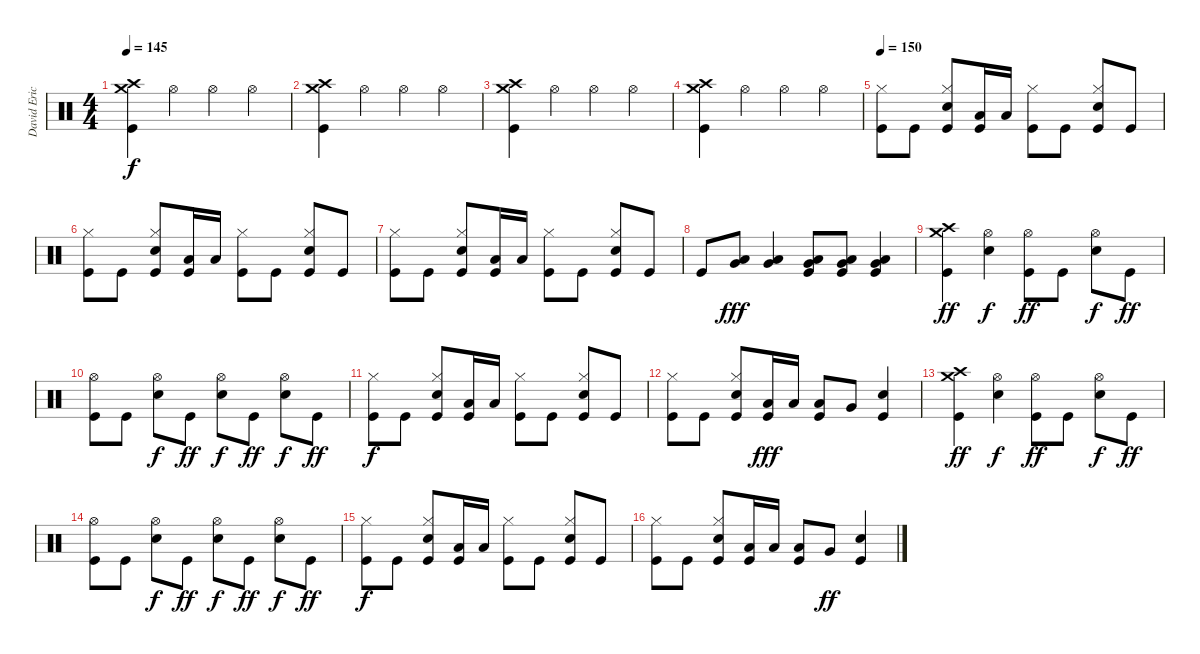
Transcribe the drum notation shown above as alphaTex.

\track ("David Eric Grohl" "David Eric") {instrument percussion}
\staff {score}
\articulation defaults
\ts (4 4)
\tempo 145
\clef neutral
\ks c
("Crash medium (hit)" "Crash high (hit)" "Kick (hit)").4{dy f} "Hi-Hat (open)".4 "Hi-Hat (open)".4 "Hi-Hat (open)".4 |
("Crash medium (hit)" "Crash high (hit)" "Kick (hit)").4 "Hi-Hat (open)".4 "Hi-Hat (open)".4 "Hi-Hat (open)".4 |
("Crash medium (hit)" "Crash high (hit)" "Kick (hit)").4 "Hi-Hat (open)".4 "Hi-Hat (open)".4 "Hi-Hat (open)".4 |
("Crash medium (hit)" "Crash high (hit)" "Kick (hit)").4 "Hi-Hat (open)".4 "Hi-Hat (open)".4 "Hi-Hat (open)".4 |
\tempo 150
("Hi-Hat (closed)" "Kick (hit)").8 "Kick (hit)".8 ("Snare (hit) 2" "Hi-Hat (closed)" "Kick (hit)").8 ("Low Tom (hit)" "Kick (hit)").16 "Low Tom (hit)".16 ("Hi-Hat (closed)" "Kick (hit)").8 "Kick (hit)".8 ("Snare (hit) 2" "Hi-Hat (closed)" "Kick (hit)").8 "Kick (hit)".8 |
("Hi-Hat (closed)" "Kick (hit)").8 "Kick (hit)".8 ("Snare (hit) 2" "Hi-Hat (closed)" "Kick (hit)").8 ("Low Tom (hit)" "Kick (hit)").16 "Low Tom (hit)".16 ("Hi-Hat (closed)" "Kick (hit)").8 "Kick (hit)".8 ("Snare (hit) 2" "Hi-Hat (closed)" "Kick (hit)").8 "Kick (hit)".8 |
("Hi-Hat (closed)" "Kick (hit)").8 "Kick (hit)".8 ("Snare (hit) 2" "Hi-Hat (closed)" "Kick (hit)").8 ("Low Tom (hit)" "Kick (hit)").16 "Low Tom (hit)".16 ("Hi-Hat (closed)" "Kick (hit)").8 "Kick (hit)".8 ("Snare (hit) 2" "Hi-Hat (closed)" "Kick (hit)").8 "Kick (hit)".8 |
"Kick (hit)".8 ("Low Tom (hit)" "Very Low Tom (hit)").8{dy fff} ("Low Tom (hit)" "Very Low Tom (hit)").4 ("Low Tom (hit)" "Very Low Tom (hit)" "Kick (hit)").8 ("Low Tom (hit)" "Very Low Tom (hit)" "Kick (hit)").8 ("Low Tom (hit)" "Very Low Tom (hit)" "Kick (hit)").4 |
("Crash medium (hit)" "Crash high (hit)" "Kick (hit)").4{dy ff} ("Hi-Hat (open)" "Snare (hit) 2").4{dy f} ("Hi-Hat (open)" "Kick (hit)").8{dy ff} "Kick (hit)".8 ("Hi-Hat (open)" "Snare (hit) 2").8{dy f} "Kick (hit)".8{dy ff} |
("Hi-Hat (open)" "Kick (hit)").8 "Kick (hit)".8 ("Hi-Hat (open)" "Snare (hit) 2").8{dy f} "Kick (hit)".8{dy ff} ("Hi-Hat (open)" "Snare (hit) 2").8{dy f} "Kick (hit)".8{dy ff} ("Hi-Hat (open)" "Snare (hit) 2").8{dy f} "Kick (hit)".8{dy ff} |
("Hi-Hat (closed)" "Kick (hit)").8{dy f} "Kick (hit)".8 ("Snare (hit) 2" "Hi-Hat (closed)" "Kick (hit)").8 ("Low Tom (hit)" "Kick (hit)").16 "Low Tom (hit)".16 ("Hi-Hat (closed)" "Kick (hit)").8 "Kick (hit)".8 ("Snare (hit) 2" "Hi-Hat (closed)" "Kick (hit)").8 "Kick (hit)".8 |
("Hi-Hat (closed)" "Kick (hit)").8 "Kick (hit)".8 ("Snare (hit) 2" "Hi-Hat (closed)" "Kick (hit)").8 ("Low Tom (hit)" "Kick (hit)").16{dy fff} "Low Tom (hit)".16 ("Low Tom (hit)" "Kick (hit)").8 "Very Low Tom (hit)".8 ("Snare (hit) 2" "Kick (hit)").4 |
("Crash medium (hit)" "Crash high (hit)" "Kick (hit)").4{dy ff} ("Hi-Hat (open)" "Snare (hit) 2").4{dy f} ("Hi-Hat (open)" "Kick (hit)").8{dy ff} "Kick (hit)".8 ("Hi-Hat (open)" "Snare (hit) 2").8{dy f} "Kick (hit)".8{dy ff} |
("Hi-Hat (open)" "Kick (hit)").8 "Kick (hit)".8 ("Hi-Hat (open)" "Snare (hit) 2").8{dy f} "Kick (hit)".8{dy ff} ("Hi-Hat (open)" "Snare (hit) 2").8{dy f} "Kick (hit)".8{dy ff} ("Hi-Hat (open)" "Snare (hit) 2").8{dy f} "Kick (hit)".8{dy ff} |
("Hi-Hat (closed)" "Kick (hit)").8{dy f} "Kick (hit)".8 ("Snare (hit) 2" "Hi-Hat (closed)" "Kick (hit)").8 ("Low Tom (hit)" "Kick (hit)").16 "Low Tom (hit)".16 ("Hi-Hat (closed)" "Kick (hit)").8 "Kick (hit)".8 ("Snare (hit) 2" "Hi-Hat (closed)" "Kick (hit)").8 "Kick (hit)".8 |
("Hi-Hat (closed)" "Kick (hit)").8 "Kick (hit)".8 ("Snare (hit) 2" "Hi-Hat (closed)" "Kick (hit)").8 ("Low Tom (hit)" "Kick (hit)").16 "Low Tom (hit)".16 ("Low Tom (hit)" "Kick (hit)").8 "Very Low Tom (hit)".8{dy ff} ("Snare (hit) 2" "Kick (hit)").4
